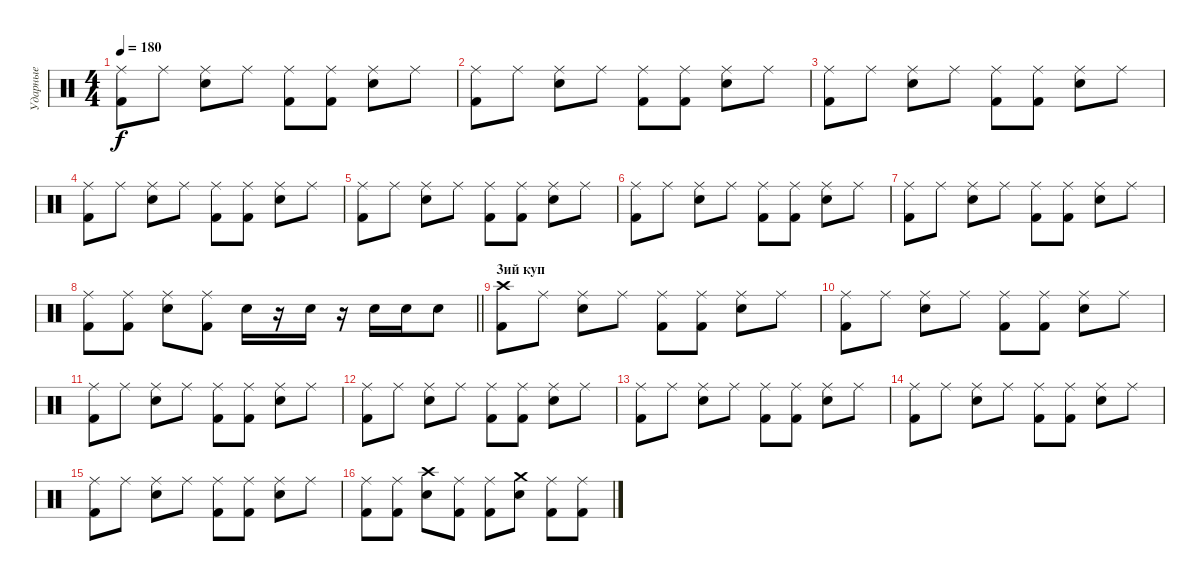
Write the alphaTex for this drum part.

\track ("Ударные" "Ударные") {instrument percussion}
\staff {score}
\articulation defaults
\ts (4 4)
\tempo 180
\clef neutral
\ks c
("Ride (middle)" "Kick (hit) 2").8{dy f} "Ride (middle)".8 ("Ride (middle)" "Electric Snare (hit)").8 "Ride (middle)".8 ("Ride (middle)" "Kick (hit) 2").8 ("Ride (middle)" "Kick (hit) 2").8 ("Ride (middle)" "Electric Snare (hit)").8 "Ride (middle)".8 |
("Ride (middle)" "Kick (hit) 2").8 "Ride (middle)".8 ("Ride (middle)" "Electric Snare (hit)").8 "Ride (middle)".8 ("Ride (middle)" "Kick (hit) 2").8 ("Ride (middle)" "Kick (hit) 2").8 ("Ride (middle)" "Electric Snare (hit)").8 "Ride (middle)".8 |
("Ride (middle)" "Kick (hit) 2").8 "Ride (middle)".8 ("Ride (middle)" "Electric Snare (hit)").8 "Ride (middle)".8 ("Ride (middle)" "Kick (hit) 2").8 ("Ride (middle)" "Kick (hit) 2").8 ("Ride (middle)" "Electric Snare (hit)").8 "Ride (middle)".8 |
("Ride (middle)" "Kick (hit) 2").8 "Ride (middle)".8 ("Ride (middle)" "Electric Snare (hit)").8 "Ride (middle)".8 ("Ride (middle)" "Kick (hit) 2").8 ("Ride (middle)" "Kick (hit) 2").8 ("Ride (middle)" "Electric Snare (hit)").8 "Ride (middle)".8 |
("Ride (middle)" "Kick (hit) 2").8 "Ride (middle)".8 ("Ride (middle)" "Electric Snare (hit)").8 "Ride (middle)".8 ("Ride (middle)" "Kick (hit) 2").8 ("Ride (middle)" "Kick (hit) 2").8 ("Ride (middle)" "Electric Snare (hit)").8 "Ride (middle)".8 |
("Ride (middle)" "Kick (hit) 2").8 "Ride (middle)".8 ("Ride (middle)" "Electric Snare (hit)").8 "Ride (middle)".8 ("Ride (middle)" "Kick (hit) 2").8 ("Ride (middle)" "Kick (hit) 2").8 ("Ride (middle)" "Electric Snare (hit)").8 "Ride (middle)".8 |
("Ride (middle)" "Kick (hit) 2").8 "Ride (middle)".8 ("Ride (middle)" "Electric Snare (hit)").8 "Ride (middle)".8 ("Ride (middle)" "Kick (hit) 2").8 ("Ride (middle)" "Kick (hit) 2").8 ("Ride (middle)" "Electric Snare (hit)").8 "Ride (middle)".8 |
\barLineRight lightlight
("Ride (middle)" "Kick (hit) 2").8 ("Ride (middle)" "Kick (hit) 2").8 ("Ride (middle)" "Electric Snare (hit)").8 ("Ride (middle)" "Kick (hit) 2").8 "Electric Snare (hit)".16 r.16 "Electric Snare (hit)".16 r.16 "Electric Snare (hit)".16 "Electric Snare (hit)".16 "Electric Snare (hit)".8 |
\section ("" "3ий куп")
("Crash high (hit)" "Kick (hit) 2").8 "Ride (middle)".8 ("Ride (middle)" "Electric Snare (hit)").8 "Ride (middle)".8 ("Ride (middle)" "Kick (hit) 2").8 ("Ride (middle)" "Kick (hit) 2").8 ("Ride (middle)" "Electric Snare (hit)").8 "Ride (middle)".8 |
("Ride (middle)" "Kick (hit) 2").8 "Ride (middle)".8 ("Ride (middle)" "Electric Snare (hit)").8 "Ride (middle)".8 ("Ride (middle)" "Kick (hit) 2").8 ("Ride (middle)" "Kick (hit) 2").8 ("Ride (middle)" "Electric Snare (hit)").8 "Ride (middle)".8 |
("Ride (middle)" "Kick (hit) 2").8 "Ride (middle)".8 ("Ride (middle)" "Electric Snare (hit)").8 "Ride (middle)".8 ("Ride (middle)" "Kick (hit) 2").8 ("Ride (middle)" "Kick (hit) 2").8 ("Ride (middle)" "Electric Snare (hit)").8 "Ride (middle)".8 |
("Ride (middle)" "Kick (hit) 2").8 "Ride (middle)".8 ("Ride (middle)" "Electric Snare (hit)").8 "Ride (middle)".8 ("Ride (middle)" "Kick (hit) 2").8 ("Ride (middle)" "Kick (hit) 2").8 ("Ride (middle)" "Electric Snare (hit)").8 "Ride (middle)".8 |
("Ride (middle)" "Kick (hit) 2").8 "Ride (middle)".8 ("Ride (middle)" "Electric Snare (hit)").8 "Ride (middle)".8 ("Ride (middle)" "Kick (hit) 2").8 ("Ride (middle)" "Kick (hit) 2").8 ("Ride (middle)" "Electric Snare (hit)").8 "Ride (middle)".8 |
("Ride (middle)" "Kick (hit) 2").8 "Ride (middle)".8 ("Ride (middle)" "Electric Snare (hit)").8 "Ride (middle)".8 ("Ride (middle)" "Kick (hit) 2").8 ("Ride (middle)" "Kick (hit) 2").8 ("Ride (middle)" "Electric Snare (hit)").8 "Ride (middle)".8 |
("Ride (middle)" "Kick (hit) 2").8 "Ride (middle)".8 ("Ride (middle)" "Electric Snare (hit)").8 "Ride (middle)".8 ("Ride (middle)" "Kick (hit) 2").8 ("Ride (middle)" "Kick (hit) 2").8 ("Ride (middle)" "Electric Snare (hit)").8 "Ride (middle)".8 |
("Ride (middle)" "Kick (hit) 2").8 ("Ride (middle)" "Kick (hit) 2").8 ("Crash high (hit)" "Electric Snare (hit)").8 ("Ride (middle)" "Kick (hit) 2").8 ("Ride (middle)" "Kick (hit) 2").8 ("Crash medium (hit)" "Electric Snare (hit)").8 ("Ride (middle)" "Kick (hit) 2").8 ("Ride (middle)" "Kick (hit) 2").8
